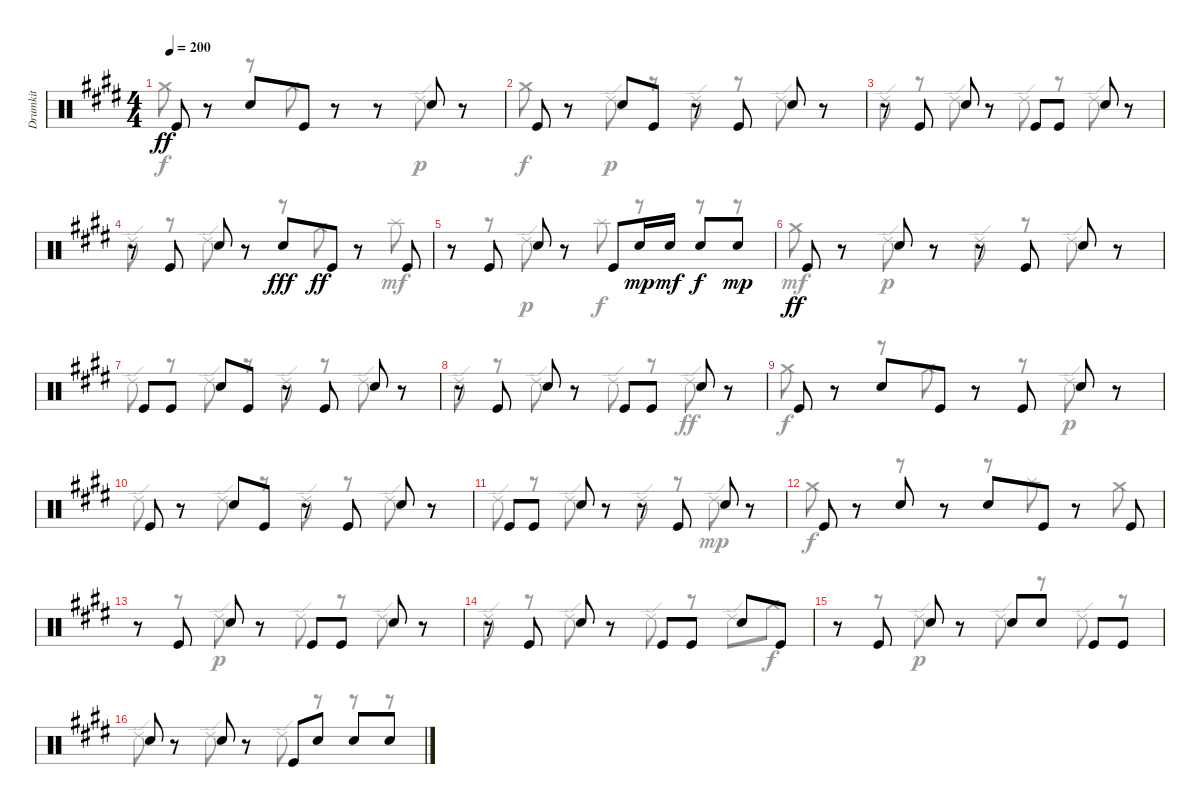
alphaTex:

\track ("Drumkit" "Drumkit") {instrument percussion}
\staff {score}
\articulation defaults
\voice
\ts (4 4)
\tempo 200
\clef neutral
\ks c#minor "Kick (hit)".8{dy ff}
r.8 "Snare (hit) 2".8 "Kick (hit)".8 r.8 r.8 "Snare (hit) 2".8 r.8 |
"Kick (hit)".8 r.8 "Snare (hit) 2".8 "Kick (hit)".8 r.8 "Kick (hit)".8 "Snare (hit) 2".8 r.8 |
r.8 "Kick (hit)".8 "Snare (hit) 2".8 r.8 "Kick (hit)".8 "Kick (hit)".8 "Snare (hit) 2".8 r.8 |
r.8 "Kick (hit)".8 "Snare (hit) 2".8 r.8 "Snare (hit) 2".8{dy fff} "Kick (hit)".8{dy ff} r.8 "Kick (hit)".8 |
r.8 "Kick (hit)".8 "Snare (hit) 2".8 r.8 "Kick (hit)".8 "Snare (hit) 2".16{dy mp} "Snare (hit) 2".16{dy mf} "Snare (hit) 2".8{dy f} "Snare (hit) 2".8{dy mp} |
"Kick (hit)".8{dy ff} r.8 "Snare (hit) 2".8 r.8 r.8 "Kick (hit)".8 "Snare (hit) 2".8 r.8 |
"Kick (hit)".8 "Kick (hit)".8 "Snare (hit) 2".8 "Kick (hit)".8 r.8 "Kick (hit)".8 "Snare (hit) 2".8 r.8 |
r.8 "Kick (hit)".8 "Snare (hit) 2".8 r.8 "Kick (hit)".8 "Kick (hit)".8 "Snare (hit) 2".8 r.8 |
"Kick (hit)".8 r.8 "Snare (hit) 2".8 "Kick (hit)".8 r.8 "Kick (hit)".8 "Snare (hit) 2".8 r.8 |
"Kick (hit)".8 r.8 "Snare (hit) 2".8 "Kick (hit)".8 r.8 "Kick (hit)".8 "Snare (hit) 2".8 r.8 |
"Kick (hit)".8 "Kick (hit)".8 "Snare (hit) 2".8 r.8 r.8 "Kick (hit)".8 "Snare (hit) 2".8 r.8 |
"Kick (hit)".8 r.8 "Snare (hit) 2".8 r.8 "Snare (hit) 2".8 "Kick (hit)".8 r.8 "Kick (hit)".8 |
r.8 "Kick (hit)".8 "Snare (hit) 2".8 r.8 "Kick (hit)".8 "Kick (hit)".8 "Snare (hit) 2".8 r.8 |
r.8 "Kick (hit)".8 "Snare (hit) 2".8 r.8 "Kick (hit)".8 "Kick (hit)".8 "Snare (hit) 2".8 "Kick (hit)".8 |
r.8 "Kick (hit)".8 "Snare (hit) 2".8 r.8 "Snare (hit) 2".8 "Snare (hit) 2".8 "Kick (hit)".8 "Kick (hit)".8 |
"Snare (hit) 2".8 r.8 "Snare (hit) 2".8 r.8 "Kick (hit)".8 "Snare (hit) 2".8 "Snare (hit) 2".8 "Snare (hit) 2".8
\voice
\clef neutral
\ottava regular
\simile none
\ks c#minor "Crash medium (hit)".8{dy f}
r.8 r.8 "Crash medium (hit)".8 r.8 r.8 "Ride (edge) 2".8{dy p} r.8 |
"Crash medium (hit)".8{dy f} r.8 "Ride (edge) 2".8{dy p} r.8 "Ride (edge) 2".8 r.8 "Ride (edge) 2".8 r.8 |
"Ride (edge) 2".8 r.8 "Ride (edge) 2".8 r.8 "Ride (edge) 2".8 r.8 "Ride (edge) 2".8 r.8 |
"Ride (edge) 2".8 r.8 "Ride (edge) 2".8 r.8 r.8 "Crash medium (hit)".8{dy ff} r.8 "Splash (hit)".8{dy mf} |
r.8 r.8 "Ride (edge) 2".8{dy p} r.8 "Splash (hit)".8{dy f} r.8 r.8 r.8 |
"Crash medium (hit)".8{dy mf} r.8 "Ride (edge) 2".8{dy p} r.8 "Ride (edge) 2".8 r.8 "Ride (edge) 2".8 r.8 |
"Ride (edge) 2".8 r.8 "Ride (edge) 2".8 r.8 "Ride (edge) 2".8 r.8 "Ride (edge) 2".8 r.8 |
"Ride (edge) 2".8 r.8 "Ride (edge) 2".8 r.8 "Ride (edge) 2".8 r.8 "Ride (edge) 2".8{dy ff} r.8 |
"Crash medium (hit)".8{dy f} r.8 r.8 "Crash medium (hit)".8 r.8 r.8 "Ride (edge) 2".8{dy p} r.8 |
"Ride (edge) 2".8 r.8 "Ride (edge) 2".8 r.8 "Ride (edge) 2".8 r.8 "Ride (edge) 2".8 r.8 |
"Ride (edge) 2".8 r.8 "Ride (edge) 2".8 r.8 "Ride (edge) 2".8 r.8 "Ride (edge) 2".8{dy mp} r.8 |
"Crash medium (hit)".8{dy f} r.8 r.8 r.8 r.8 "Splash (hit)".8 r.8 "Crash medium (hit)".8 |
r.8 r.8 "Ride (edge) 2".8{dy p} r.8 "Ride (edge) 2".8 r.8 "Ride (edge) 2".8 r.8 |
"Ride (edge) 2".8 r.8 "Ride (edge) 2".8 r.8 "Ride (edge) 2".8 r.8 "Ride (edge) 2".8 "Crash medium (hit)".8{dy f} |
r.8 r.8 "Ride (edge) 2".8{dy p} r.8 "Ride (edge) 2".8 r.8 "Ride (edge) 2".8 r.8 |
"Ride (edge) 2".8 r.8 "Ride (edge) 2".8 r.8 "Ride (edge) 2".8 r.8 r.8 r.8
